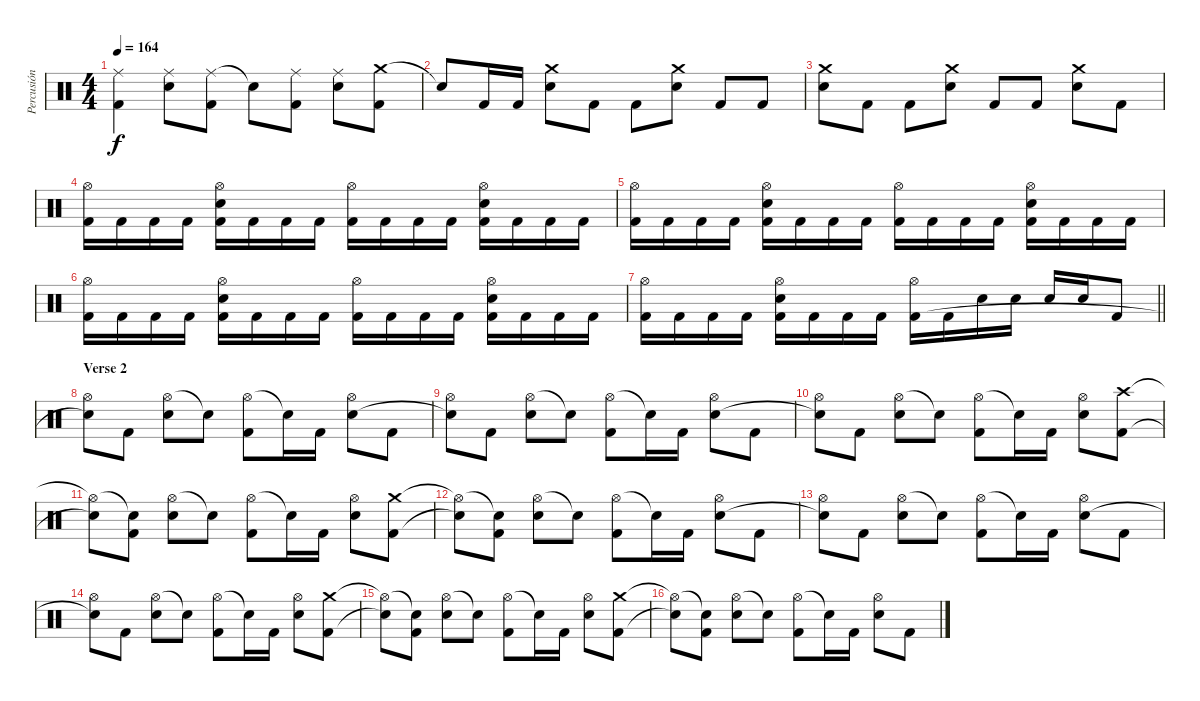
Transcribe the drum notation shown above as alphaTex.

\track ("Percusión" "Percusión") {instrument percussion}
\staff
\articulation defaults
\ts (4 4)
\tempo 164
\clef neutral
\ks c
("Ride (middle)" "Kick (hit) 2").4{dy f} ("Ride (middle)" "Snare (hit) 2").8 ("Ride (middle)" "Kick (hit) 2").8 "Snare (hit)"{t}.8 ("Ride (middle)" "Kick (hit) 2").8 ("Ride (middle)" "Snare (hit) 2").8 ("Crash medium (hit)" "Kick (hit) 2").8 |
"Snare (hit)"{t}.8 "Kick (hit) 2".16 "Kick (hit) 2".16 ("Crash medium (hit)" "Snare (hit) 2").8 "Kick (hit) 2".8 "Kick (hit) 2".8 ("Crash medium (hit)" "Snare (hit) 2").8 "Kick (hit) 2".8 "Kick (hit) 2".8 |
("Crash medium (hit)" "Snare (hit) 2").8 "Kick (hit) 2".8 "Kick (hit) 2".8 ("Crash medium (hit)" "Snare (hit) 2").8 "Kick (hit) 2".8 "Kick (hit) 2".8 ("Crash medium (hit)" "Snare (hit) 2").8 "Kick (hit) 2".8 |
("Hi-Hat (open)" "Kick (hit) 2").16 "Kick (hit) 2".16 "Kick (hit) 2".16 "Kick (hit) 2".16 ("Hi-Hat (open)" "Snare (hit) 2" "Kick (hit) 2").16 "Kick (hit) 2".16 "Kick (hit) 2".16 "Kick (hit) 2".16 ("Hi-Hat (open)" "Kick (hit) 2").16 "Kick (hit) 2".16 "Kick (hit) 2".16 "Kick (hit) 2".16 ("Hi-Hat (open)" "Snare (hit) 2" "Kick (hit) 2").16 "Kick (hit) 2".16 "Kick (hit) 2".16 "Kick (hit) 2".16 |
("Hi-Hat (open)" "Kick (hit) 2").16 "Kick (hit) 2".16 "Kick (hit) 2".16 "Kick (hit) 2".16 ("Hi-Hat (open)" "Snare (hit) 2" "Kick (hit) 2").16 "Kick (hit) 2".16 "Kick (hit) 2".16 "Kick (hit) 2".16 ("Hi-Hat (open)" "Kick (hit) 2").16 "Kick (hit) 2".16 "Kick (hit) 2".16 "Kick (hit) 2".16 ("Hi-Hat (open)" "Snare (hit) 2" "Kick (hit) 2").16 "Kick (hit) 2".16 "Kick (hit) 2".16 "Kick (hit) 2".16 |
("Hi-Hat (open)" "Kick (hit) 2").16 "Kick (hit) 2".16 "Kick (hit) 2".16 "Kick (hit) 2".16 ("Hi-Hat (open)" "Snare (hit) 2" "Kick (hit) 2").16 "Kick (hit) 2".16 "Kick (hit) 2".16 "Kick (hit) 2".16 ("Hi-Hat (open)" "Kick (hit) 2").16 "Kick (hit) 2".16 "Kick (hit) 2".16 "Kick (hit) 2".16 ("Hi-Hat (open)" "Snare (hit) 2" "Kick (hit) 2").16 "Kick (hit) 2".16 "Kick (hit) 2".16 "Kick (hit) 2".16 |
\barLineRight lightlight
("Hi-Hat (open)" "Kick (hit) 2").16 "Kick (hit) 2".16 "Kick (hit) 2".16 "Kick (hit) 2".16 ("Hi-Hat (open)" "Snare (hit) 2" "Kick (hit) 2").16 "Kick (hit) 2".16 "Kick (hit) 2".16 "Kick (hit) 2".16 ("Hi-Hat (open)" "Kick (hit) 2").16 "Kick (hit) 2".16 "Snare (hit) 2".16 "Snare (hit) 2".16 "Snare (hit) 2".16 "Snare (hit) 2".16 "Kick (hit) 2".8 |
\section ("" "Verse 2")
("Hi-Hat (open)" "Snare (hit)"{t}).8 "Kick (hit) 2".8 ("Hi-Hat (open)" "Snare (hit) 2").8 "Snare (hit)"{t}.8 ("Hi-Hat (open)" "Kick (hit) 2").8 "Snare (hit)"{t}.16 "Kick (hit) 2".16 ("Hi-Hat (open)" "Snare (hit) 2").8 "Kick (hit) 2".8 |
("Hi-Hat (open)" "Snare (hit)"{t}).8 "Kick (hit) 2".8 ("Hi-Hat (open)" "Snare (hit) 2").8 "Snare (hit)"{t}.8 ("Hi-Hat (open)" "Kick (hit) 2").8 "Snare (hit)"{t}.16 "Kick (hit) 2".16 ("Hi-Hat (open)" "Snare (hit) 2").8 "Kick (hit) 2".8 |
("Hi-Hat (open)" "Snare (hit)"{t}).8 "Kick (hit) 2".8 ("Hi-Hat (open)" "Snare (hit) 2").8 "Snare (hit)"{t}.8 ("Hi-Hat (open)" "Kick (hit) 2").8 "Snare (hit)"{t}.16 "Kick (hit) 2".16 ("Hi-Hat (open)" "Snare (hit) 2").8 ("Crash high (hit)" "Kick (hit) 2").8 |
("Hi-Hat (open)"{t} "Snare (hit)"{t}).8 ("Snare (hit)"{t} "Kick (hit) 2").8 ("Hi-Hat (open)" "Snare (hit) 2").8 "Snare (hit)"{t}.8 ("Hi-Hat (open)" "Kick (hit) 2").8 "Snare (hit)"{t}.16 "Kick (hit) 2".16 ("Hi-Hat (open)" "Snare (hit) 2").8 ("Crash medium (hit)" "Kick (hit) 2").8 |
("Hi-Hat (open)"{t} "Snare (hit)"{t}).8 ("Snare (hit)"{t} "Kick (hit) 2").8 ("Hi-Hat (open)" "Snare (hit) 2").8 "Snare (hit)"{t}.8 ("Hi-Hat (open)" "Kick (hit) 2").8 "Snare (hit)"{t}.16 "Kick (hit) 2".16 ("Hi-Hat (open)" "Snare (hit) 2").8 "Kick (hit) 2".8 |
("Hi-Hat (open)" "Snare (hit)"{t}).8 "Kick (hit) 2".8 ("Hi-Hat (open)" "Snare (hit) 2").8 "Snare (hit)"{t}.8 ("Hi-Hat (open)" "Kick (hit) 2").8 "Snare (hit)"{t}.16 "Kick (hit) 2".16 ("Hi-Hat (open)" "Snare (hit) 2").8 "Kick (hit) 2".8 |
("Hi-Hat (open)" "Snare (hit)"{t}).8 "Kick (hit) 2".8 ("Hi-Hat (open)" "Snare (hit) 2").8 "Snare (hit)"{t}.8 ("Hi-Hat (open)" "Kick (hit) 2").8 "Snare (hit)"{t}.16 "Kick (hit) 2".16 ("Hi-Hat (open)" "Snare (hit) 2").8 ("Crash medium (hit)" "Kick (hit) 2").8 |
("Hi-Hat (open)"{t} "Snare (hit)"{t}).8 ("Snare (hit)"{t} "Kick (hit) 2").8 ("Hi-Hat (open)" "Snare (hit) 2").8 "Snare (hit)"{t}.8 ("Hi-Hat (open)" "Kick (hit) 2").8 "Snare (hit)"{t}.16 "Kick (hit) 2".16 ("Hi-Hat (open)" "Snare (hit) 2").8 ("Crash medium (hit)" "Kick (hit) 2").8 |
("Hi-Hat (open)"{t} "Snare (hit)"{t}).8 ("Snare (hit)"{t} "Kick (hit) 2").8 ("Hi-Hat (open)" "Snare (hit) 2").8 "Snare (hit)"{t}.8 ("Hi-Hat (open)" "Kick (hit) 2").8 "Snare (hit)"{t}.16 "Kick (hit) 2".16 ("Hi-Hat (open)" "Snare (hit) 2").8 "Kick (hit) 2".8
